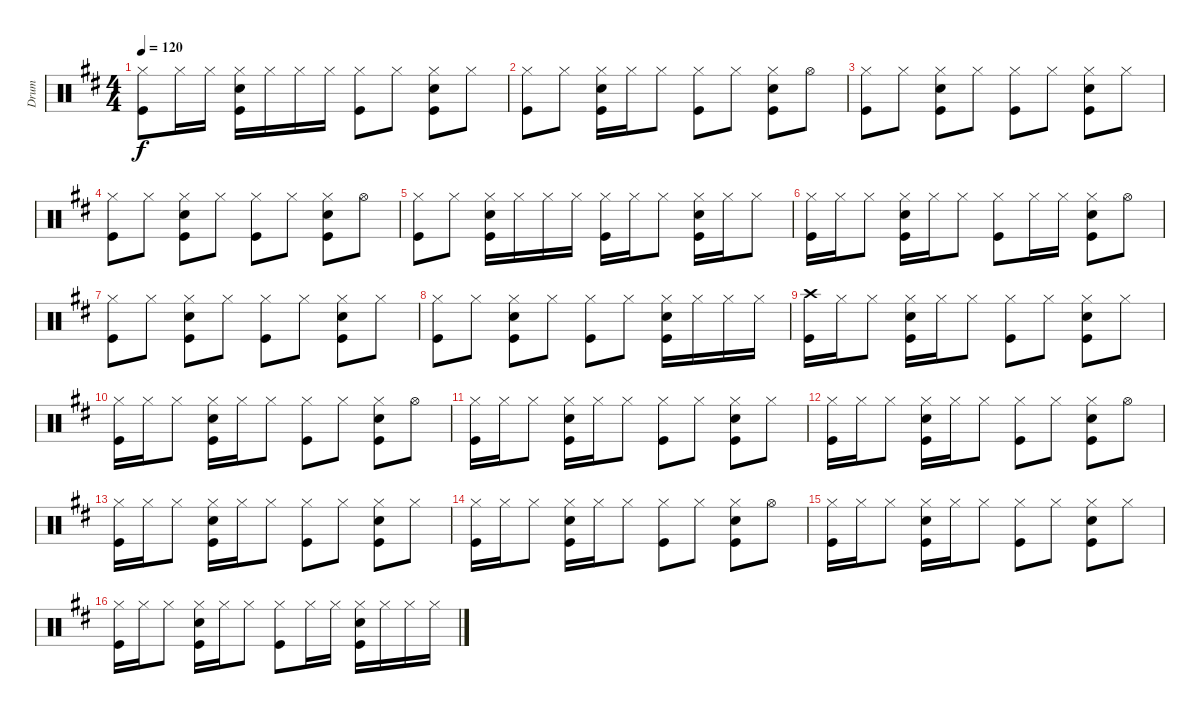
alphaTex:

\track ("Drum" "Drum") {instrument percussion}
\staff {score}
\articulation defaults
\ts (4 4)
\tempo 120
\clef neutral
\ks d
("Hi-Hat (closed)" "Kick (hit)").8{dy f} "Hi-Hat (closed)".16 "Hi-Hat (closed)".16 ("Hi-Hat (closed)" "Snare (hit) 2" "Kick (hit)").16 "Hi-Hat (closed)".16 "Hi-Hat (closed)".16 "Hi-Hat (closed)".16 ("Hi-Hat (closed)" "Kick (hit)").8 "Hi-Hat (closed)".8 ("Hi-Hat (closed)" "Snare (hit) 2" "Kick (hit)").8 "Hi-Hat (closed)".8 |
("Hi-Hat (closed)" "Kick (hit)").8 "Hi-Hat (closed)".8 ("Hi-Hat (closed)" "Snare (hit) 2" "Kick (hit)").16 "Hi-Hat (closed)".16 "Hi-Hat (closed)".8 ("Hi-Hat (closed)" "Kick (hit)").8 "Hi-Hat (closed)".8 ("Hi-Hat (closed)" "Snare (hit) 2" "Kick (hit)").8 "Hi-Hat (open)".8 |
("Hi-Hat (closed)" "Kick (hit)").8 "Hi-Hat (closed)".8 ("Hi-Hat (closed)" "Snare (hit) 2" "Kick (hit)").8 "Hi-Hat (closed)".8 ("Hi-Hat (closed)" "Kick (hit)").8 "Hi-Hat (closed)".8 ("Hi-Hat (closed)" "Snare (hit) 2" "Kick (hit)").8 "Hi-Hat (closed)".8 |
("Hi-Hat (closed)" "Kick (hit)").8 "Hi-Hat (closed)".8 ("Hi-Hat (closed)" "Snare (hit) 2" "Kick (hit)").8 "Hi-Hat (closed)".8 ("Hi-Hat (closed)" "Kick (hit)").8 "Hi-Hat (closed)".8 ("Hi-Hat (closed)" "Snare (hit) 2" "Kick (hit)").8 "Hi-Hat (open)".8 |
("Hi-Hat (closed)" "Kick (hit)").8 "Hi-Hat (closed)".8 ("Hi-Hat (closed)" "Snare (hit) 2" "Kick (hit)").16 "Hi-Hat (closed)".16 "Hi-Hat (closed)".16 "Hi-Hat (closed)".16 ("Hi-Hat (closed)" "Kick (hit)").16 "Hi-Hat (closed)".16 "Hi-Hat (closed)".8 ("Hi-Hat (closed)" "Snare (hit) 2" "Kick (hit)").16 "Hi-Hat (closed)".16 "Hi-Hat (closed)".8 |
("Hi-Hat (closed)" "Kick (hit)").16 "Hi-Hat (closed)".16 "Hi-Hat (closed)".8 ("Hi-Hat (closed)" "Snare (hit) 2" "Kick (hit)").16 "Hi-Hat (closed)".16 "Hi-Hat (closed)".8 ("Hi-Hat (closed)" "Kick (hit)").8 "Hi-Hat (closed)".16 "Hi-Hat (closed)".16 ("Hi-Hat (closed)" "Snare (hit) 2" "Kick (hit)").8 "Hi-Hat (open)".8 |
("Hi-Hat (closed)" "Kick (hit)").8 "Hi-Hat (closed)".8 ("Hi-Hat (closed)" "Snare (hit) 2" "Kick (hit)").8 "Hi-Hat (closed)".8 ("Hi-Hat (closed)" "Kick (hit)").8 "Hi-Hat (closed)".8 ("Hi-Hat (closed)" "Snare (hit) 2" "Kick (hit)").8 "Hi-Hat (closed)".8 |
("Hi-Hat (closed)" "Kick (hit)").8 "Hi-Hat (closed)".8 ("Hi-Hat (closed)" "Snare (hit) 2" "Kick (hit)").8 "Hi-Hat (closed)".8 ("Hi-Hat (closed)" "Kick (hit)").8 "Hi-Hat (closed)".8 ("Hi-Hat (closed)" "Snare (hit) 2" "Kick (hit)").16 "Hi-Hat (closed)".16 "Hi-Hat (closed)".16 "Hi-Hat (closed)".16 |
("Crash high (hit)" "Kick (hit)").16 "Hi-Hat (closed)".16 "Hi-Hat (closed)".8 ("Hi-Hat (closed)" "Snare (hit) 2" "Kick (hit)").16 "Hi-Hat (closed)".16 "Hi-Hat (closed)".8 ("Hi-Hat (closed)" "Kick (hit)").8 "Hi-Hat (closed)".8 ("Hi-Hat (closed)" "Snare (hit) 2" "Kick (hit)").8 "Hi-Hat (closed)".8 |
("Hi-Hat (closed)" "Kick (hit)").16 "Hi-Hat (closed)".16 "Hi-Hat (closed)".8 ("Hi-Hat (closed)" "Snare (hit) 2" "Kick (hit)").16 "Hi-Hat (closed)".16 "Hi-Hat (closed)".8 ("Hi-Hat (closed)" "Kick (hit)").8 "Hi-Hat (closed)".8 ("Hi-Hat (closed)" "Snare (hit) 2" "Kick (hit)").8 "Hi-Hat (open)".8 |
("Hi-Hat (closed)" "Kick (hit)").16 "Hi-Hat (closed)".16 "Hi-Hat (closed)".8 ("Hi-Hat (closed)" "Snare (hit) 2" "Kick (hit)").16 "Hi-Hat (closed)".16 "Hi-Hat (closed)".8 ("Hi-Hat (closed)" "Kick (hit)").8 "Hi-Hat (closed)".8 ("Hi-Hat (closed)" "Snare (hit) 2" "Kick (hit)").8 "Hi-Hat (closed)".8 |
("Hi-Hat (closed)" "Kick (hit)").16 "Hi-Hat (closed)".16 "Hi-Hat (closed)".8 ("Hi-Hat (closed)" "Snare (hit) 2" "Kick (hit)").16 "Hi-Hat (closed)".16 "Hi-Hat (closed)".8 ("Hi-Hat (closed)" "Kick (hit)").8 "Hi-Hat (closed)".8 ("Hi-Hat (closed)" "Snare (hit) 2" "Kick (hit)").8 "Hi-Hat (open)".8 |
("Hi-Hat (closed)" "Kick (hit)").16 "Hi-Hat (closed)".16 "Hi-Hat (closed)".8 ("Hi-Hat (closed)" "Snare (hit) 2" "Kick (hit)").16 "Hi-Hat (closed)".16 "Hi-Hat (closed)".8 ("Hi-Hat (closed)" "Kick (hit)").8 "Hi-Hat (closed)".8 ("Hi-Hat (closed)" "Snare (hit) 2" "Kick (hit)").8 "Hi-Hat (closed)".8 |
("Hi-Hat (closed)" "Kick (hit)").16 "Hi-Hat (closed)".16 "Hi-Hat (closed)".8 ("Hi-Hat (closed)" "Snare (hit) 2" "Kick (hit)").16 "Hi-Hat (closed)".16 "Hi-Hat (closed)".8 ("Hi-Hat (closed)" "Kick (hit)").8 "Hi-Hat (closed)".8 ("Hi-Hat (closed)" "Snare (hit) 2" "Kick (hit)").8 "Hi-Hat (open)".8 |
("Hi-Hat (closed)" "Kick (hit)").16 "Hi-Hat (closed)".16 "Hi-Hat (closed)".8 ("Hi-Hat (closed)" "Snare (hit) 2" "Kick (hit)").16 "Hi-Hat (closed)".16 "Hi-Hat (closed)".8 ("Hi-Hat (closed)" "Kick (hit)").8 "Hi-Hat (closed)".8 ("Hi-Hat (closed)" "Snare (hit) 2" "Kick (hit)").8 "Hi-Hat (closed)".8 |
("Hi-Hat (closed)" "Kick (hit)").16 "Hi-Hat (closed)".16 "Hi-Hat (closed)".8 ("Hi-Hat (closed)" "Snare (hit) 2" "Kick (hit)").16 "Hi-Hat (closed)".16 "Hi-Hat (closed)".8 ("Hi-Hat (closed)" "Kick (hit)").8 "Hi-Hat (closed)".16 "Hi-Hat (closed)".16 ("Hi-Hat (closed)" "Snare (hit) 2" "Kick (hit)").16 "Hi-Hat (closed)".16 "Hi-Hat (closed)".16 "Hi-Hat (closed)".16
